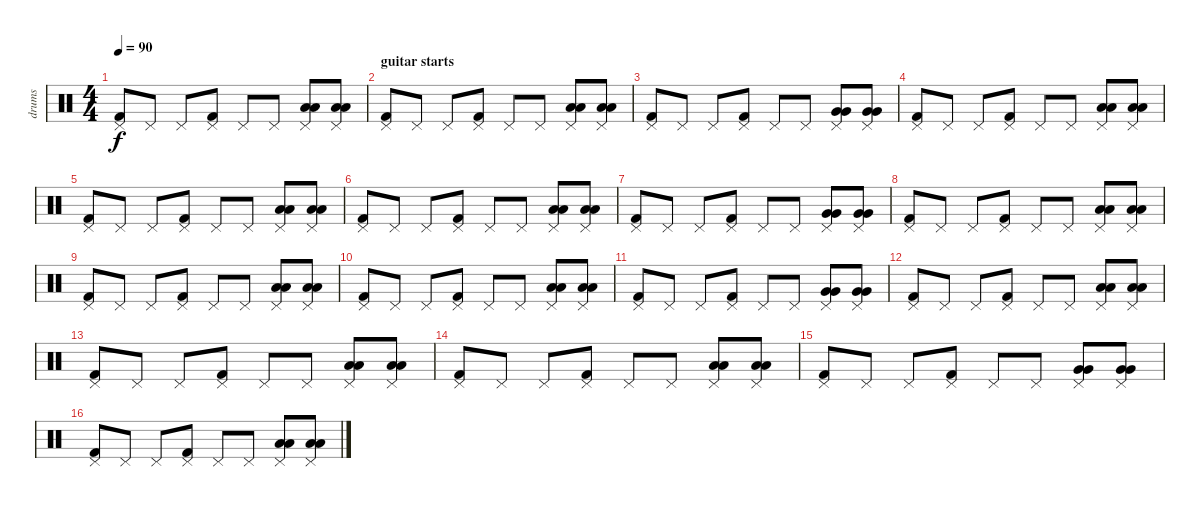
\track ("drums" "drums") {instrument percussion}
\staff {score}
\articulation defaults
\ts (4 4)
\tempo 90
\clef neutral
\ks c
("Kick (hit) 2" "Pedal Hi-Hat (hit)").8{dy f} "Pedal Hi-Hat (hit)".8 "Pedal Hi-Hat (hit)".8 ("Kick (hit) 2" "Pedal Hi-Hat (hit)").8 "Pedal Hi-Hat (hit)".8 "Pedal Hi-Hat (hit)".8 ("Low Floor Tom (hit)" "Low Floor Tom (hit)" "Pedal Hi-Hat (hit)").8 ("Low Floor Tom (hit)" "Low Floor Tom (hit)" "Pedal Hi-Hat (hit)").8 |
\section ("" "guitar starts")
("Kick (hit) 2" "Pedal Hi-Hat (hit)").8 "Pedal Hi-Hat (hit)".8 "Pedal Hi-Hat (hit)".8 ("Kick (hit) 2" "Pedal Hi-Hat (hit)").8 "Pedal Hi-Hat (hit)".8 "Pedal Hi-Hat (hit)".8 ("Low Tom (hit)" "Low Tom (hit)" "Pedal Hi-Hat (hit)").8 ("Low Tom (hit)" "Low Tom (hit)" "Pedal Hi-Hat (hit)").8 |
("Kick (hit) 2" "Pedal Hi-Hat (hit)").8 "Pedal Hi-Hat (hit)".8 "Pedal Hi-Hat (hit)".8 ("Kick (hit) 2" "Pedal Hi-Hat (hit)").8 "Pedal Hi-Hat (hit)".8 "Pedal Hi-Hat (hit)".8 ("Very Low Tom (hit)" "Very Low Tom (hit)" "Pedal Hi-Hat (hit)").8 ("Very Low Tom (hit)" "Very Low Tom (hit)" "Pedal Hi-Hat (hit)").8 |
("Kick (hit) 2" "Pedal Hi-Hat (hit)").8 "Pedal Hi-Hat (hit)".8 "Pedal Hi-Hat (hit)".8 ("Kick (hit) 2" "Pedal Hi-Hat (hit)").8 "Pedal Hi-Hat (hit)".8 "Pedal Hi-Hat (hit)".8 ("Low Tom (hit)" "Low Tom (hit)" "Pedal Hi-Hat (hit)").8 ("Low Tom (hit)" "Low Tom (hit)" "Pedal Hi-Hat (hit)").8 |
("Kick (hit) 2" "Pedal Hi-Hat (hit)").8 "Pedal Hi-Hat (hit)".8 "Pedal Hi-Hat (hit)".8 ("Kick (hit) 2" "Pedal Hi-Hat (hit)").8 "Pedal Hi-Hat (hit)".8 "Pedal Hi-Hat (hit)".8 ("Low Floor Tom (hit)" "Low Floor Tom (hit)" "Pedal Hi-Hat (hit)").8 ("Low Floor Tom (hit)" "Low Floor Tom (hit)" "Pedal Hi-Hat (hit)").8 |
("Kick (hit) 2" "Pedal Hi-Hat (hit)").8 "Pedal Hi-Hat (hit)".8 "Pedal Hi-Hat (hit)".8 ("Kick (hit) 2" "Pedal Hi-Hat (hit)").8 "Pedal Hi-Hat (hit)".8 "Pedal Hi-Hat (hit)".8 ("Low Tom (hit)" "Low Tom (hit)" "Pedal Hi-Hat (hit)").8 ("Low Tom (hit)" "Low Tom (hit)" "Pedal Hi-Hat (hit)").8 |
("Kick (hit) 2" "Pedal Hi-Hat (hit)").8 "Pedal Hi-Hat (hit)".8 "Pedal Hi-Hat (hit)".8 ("Kick (hit) 2" "Pedal Hi-Hat (hit)").8 "Pedal Hi-Hat (hit)".8 "Pedal Hi-Hat (hit)".8 ("Very Low Tom (hit)" "Very Low Tom (hit)" "Pedal Hi-Hat (hit)").8 ("Very Low Tom (hit)" "Very Low Tom (hit)" "Pedal Hi-Hat (hit)").8 |
("Kick (hit) 2" "Pedal Hi-Hat (hit)").8 "Pedal Hi-Hat (hit)".8 "Pedal Hi-Hat (hit)".8 ("Kick (hit) 2" "Pedal Hi-Hat (hit)").8 "Pedal Hi-Hat (hit)".8 "Pedal Hi-Hat (hit)".8 ("Low Tom (hit)" "Low Tom (hit)" "Pedal Hi-Hat (hit)").8 ("Low Tom (hit)" "Low Tom (hit)" "Pedal Hi-Hat (hit)").8 |
("Kick (hit) 2" "Pedal Hi-Hat (hit)").8 "Pedal Hi-Hat (hit)".8 "Pedal Hi-Hat (hit)".8 ("Kick (hit) 2" "Pedal Hi-Hat (hit)").8 "Pedal Hi-Hat (hit)".8 "Pedal Hi-Hat (hit)".8 ("Low Floor Tom (hit)" "Low Floor Tom (hit)" "Pedal Hi-Hat (hit)").8 ("Low Floor Tom (hit)" "Low Floor Tom (hit)" "Pedal Hi-Hat (hit)").8 |
("Kick (hit) 2" "Pedal Hi-Hat (hit)").8 "Pedal Hi-Hat (hit)".8 "Pedal Hi-Hat (hit)".8 ("Kick (hit) 2" "Pedal Hi-Hat (hit)").8 "Pedal Hi-Hat (hit)".8 "Pedal Hi-Hat (hit)".8 ("Low Tom (hit)" "Low Tom (hit)" "Pedal Hi-Hat (hit)").8 ("Low Tom (hit)" "Low Tom (hit)" "Pedal Hi-Hat (hit)").8 |
("Kick (hit) 2" "Pedal Hi-Hat (hit)").8 "Pedal Hi-Hat (hit)".8 "Pedal Hi-Hat (hit)".8 ("Kick (hit) 2" "Pedal Hi-Hat (hit)").8 "Pedal Hi-Hat (hit)".8 "Pedal Hi-Hat (hit)".8 ("Very Low Tom (hit)" "Very Low Tom (hit)" "Pedal Hi-Hat (hit)").8 ("Very Low Tom (hit)" "Very Low Tom (hit)" "Pedal Hi-Hat (hit)").8 |
("Kick (hit) 2" "Pedal Hi-Hat (hit)").8 "Pedal Hi-Hat (hit)".8 "Pedal Hi-Hat (hit)".8 ("Kick (hit) 2" "Pedal Hi-Hat (hit)").8 "Pedal Hi-Hat (hit)".8 "Pedal Hi-Hat (hit)".8 ("Low Tom (hit)" "Low Tom (hit)" "Pedal Hi-Hat (hit)").8 ("Low Tom (hit)" "Low Tom (hit)" "Pedal Hi-Hat (hit)").8 |
("Kick (hit) 2" "Pedal Hi-Hat (hit)").8 "Pedal Hi-Hat (hit)".8 "Pedal Hi-Hat (hit)".8 ("Kick (hit) 2" "Pedal Hi-Hat (hit)").8 "Pedal Hi-Hat (hit)".8 "Pedal Hi-Hat (hit)".8 ("Low Floor Tom (hit)" "Low Floor Tom (hit)" "Pedal Hi-Hat (hit)").8 ("Low Floor Tom (hit)" "Low Floor Tom (hit)" "Pedal Hi-Hat (hit)").8 |
("Kick (hit) 2" "Pedal Hi-Hat (hit)").8 "Pedal Hi-Hat (hit)".8 "Pedal Hi-Hat (hit)".8 ("Kick (hit) 2" "Pedal Hi-Hat (hit)").8 "Pedal Hi-Hat (hit)".8 "Pedal Hi-Hat (hit)".8 ("Low Tom (hit)" "Low Tom (hit)" "Pedal Hi-Hat (hit)").8 ("Low Tom (hit)" "Low Tom (hit)" "Pedal Hi-Hat (hit)").8 |
("Kick (hit) 2" "Pedal Hi-Hat (hit)").8 "Pedal Hi-Hat (hit)".8 "Pedal Hi-Hat (hit)".8 ("Kick (hit) 2" "Pedal Hi-Hat (hit)").8 "Pedal Hi-Hat (hit)".8 "Pedal Hi-Hat (hit)".8 ("Very Low Tom (hit)" "Very Low Tom (hit)" "Pedal Hi-Hat (hit)").8 ("Very Low Tom (hit)" "Very Low Tom (hit)" "Pedal Hi-Hat (hit)").8 |
("Kick (hit) 2" "Pedal Hi-Hat (hit)").8 "Pedal Hi-Hat (hit)".8 "Pedal Hi-Hat (hit)".8 ("Kick (hit) 2" "Pedal Hi-Hat (hit)").8 "Pedal Hi-Hat (hit)".8 "Pedal Hi-Hat (hit)".8 ("Low Tom (hit)" "Low Tom (hit)" "Pedal Hi-Hat (hit)").8 ("Low Tom (hit)" "Low Tom (hit)" "Pedal Hi-Hat (hit)").8
